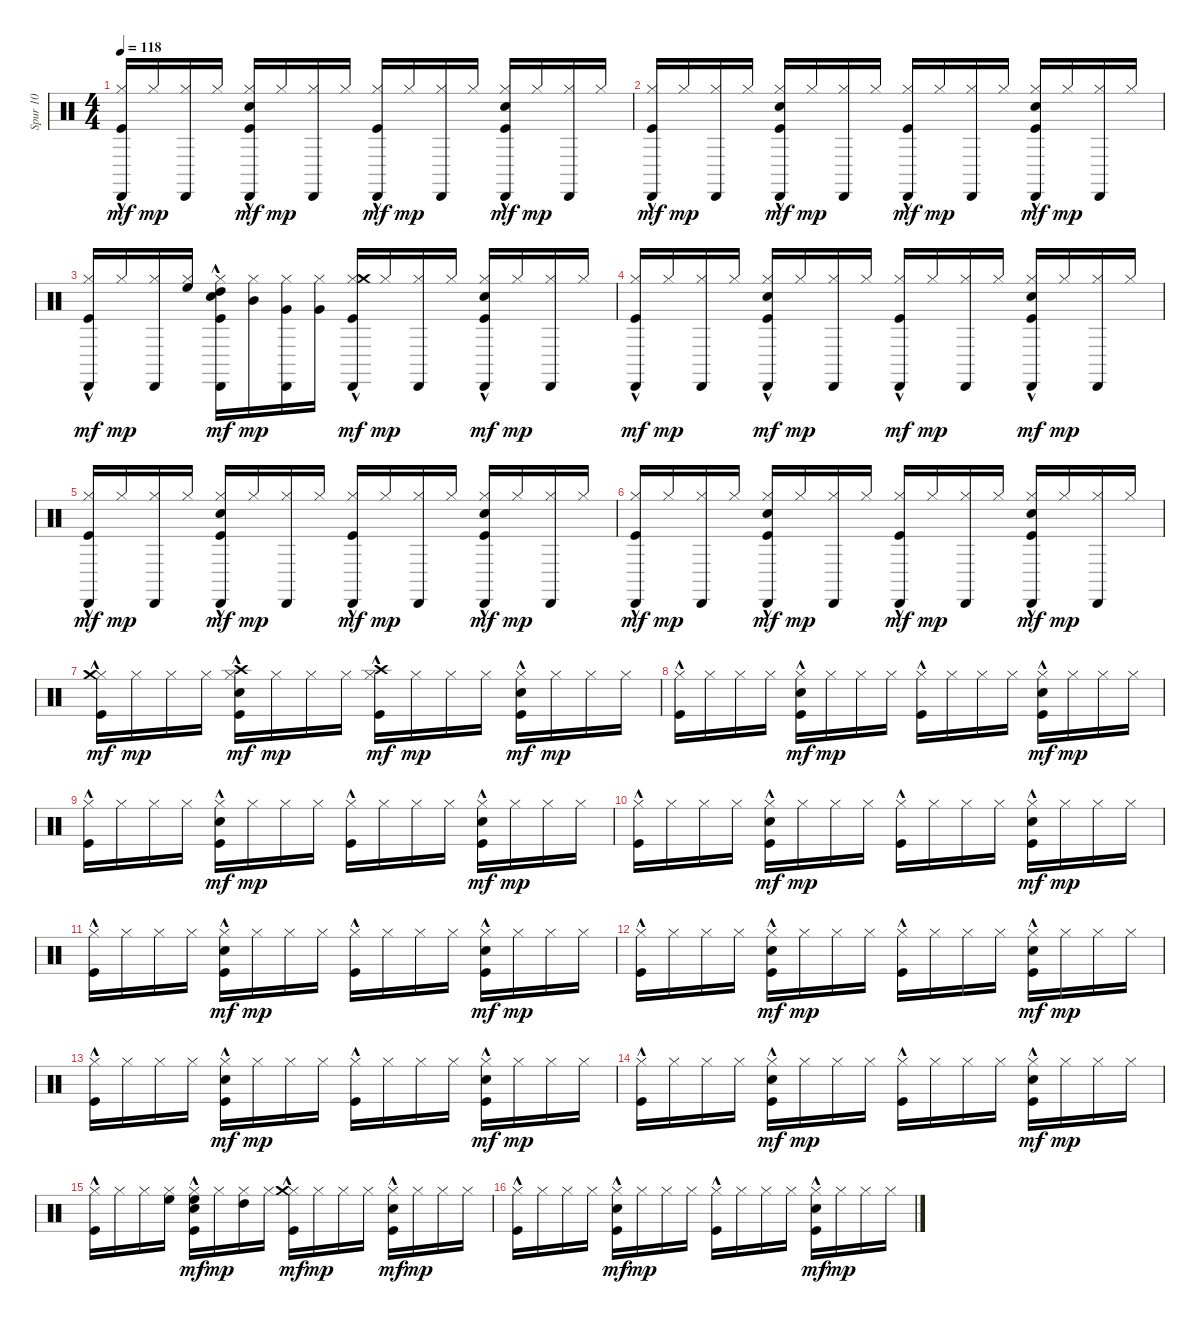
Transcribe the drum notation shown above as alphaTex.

\track ("Spur 10" "Spur 10") {instrument percussion}
\staff {score}
\articulation defaults
\ts (4 4)
\tempo 118
\clef neutral
\ks c
("Hi-Hat (closed)" "Kick (hit)"{hac} "Cabasa (hit)").16{dy mf} "Hi-Hat (closed)".16{dy mp} ("Hi-Hat (closed)" "Cabasa (hit)").16 "Hi-Hat (closed)".16 ("Hi-Hat (closed)" "Kick (hit)"{hac} "Electric Snare (hit)" "Cabasa (hit)").16{dy mf} "Hi-Hat (closed)".16{dy mp} ("Hi-Hat (closed)" "Cabasa (hit)").16 "Hi-Hat (closed)".16 ("Hi-Hat (closed)" "Kick (hit)"{hac} "Cabasa (hit)").16{dy mf} "Hi-Hat (closed)".16{dy mp} ("Hi-Hat (closed)" "Cabasa (hit)").16 "Hi-Hat (closed)".16 ("Hi-Hat (closed)" "Kick (hit)"{hac} "Electric Snare (hit)" "Cabasa (hit)").16{dy mf} "Hi-Hat (closed)".16{dy mp} ("Hi-Hat (closed)" "Cabasa (hit)").16 "Hi-Hat (closed)".16 |
("Hi-Hat (closed)" "Kick (hit)"{hac} "Cabasa (hit)").16{dy mf} "Hi-Hat (closed)".16{dy mp} ("Hi-Hat (closed)" "Cabasa (hit)").16 "Hi-Hat (closed)".16 ("Hi-Hat (closed)" "Kick (hit)"{hac} "Electric Snare (hit)" "Cabasa (hit)").16{dy mf} "Hi-Hat (closed)".16{dy mp} ("Hi-Hat (closed)" "Cabasa (hit)").16 "Hi-Hat (closed)".16 ("Hi-Hat (closed)" "Kick (hit)"{hac} "Cabasa (hit)").16{dy mf} "Hi-Hat (closed)".16{dy mp} ("Hi-Hat (closed)" "Cabasa (hit)").16 "Hi-Hat (closed)".16 ("Hi-Hat (closed)" "Kick (hit)"{hac} "Electric Snare (hit)" "Cabasa (hit)").16{dy mf} "Hi-Hat (closed)".16{dy mp} ("Hi-Hat (closed)" "Cabasa (hit)").16 "Hi-Hat (closed)".16 |
("Hi-Hat (closed)" "Kick (hit)"{hac} "Cabasa (hit)").16{dy mf} "Hi-Hat (closed)".16{dy mp} ("Hi-Hat (closed)" "Cabasa (hit)").16 ("High Floor Tom (hit)" "Hi-Hat (closed)").16 ("High Tom (hit)" "Hi-Hat (closed)" "Kick (hit)"{hac} "Electric Snare (hit)" "Cabasa (hit)").16{dy mf} ("Mid Tom (hit)" "Hi-Hat (closed)").16{dy mp} ("Very Low Tom (hit)" "Hi-Hat (closed)" "Cabasa (hit)").16 ("Very Low Tom (hit)" "Hi-Hat (closed)").16 ("Hi-Hat (closed)" "Kick (hit)"{hac} "Crash medium (hit)"{hac} "Cabasa (hit)").16{dy mf} "Hi-Hat (closed)".16{dy mp} ("Hi-Hat (closed)" "Cabasa (hit)").16 "Hi-Hat (closed)".16 ("Hi-Hat (closed)" "Kick (hit)"{hac} "Electric Snare (hit)" "Cabasa (hit)").16{dy mf} "Hi-Hat (closed)".16{dy mp} ("Hi-Hat (closed)" "Cabasa (hit)").16 "Hi-Hat (closed)".16 |
("Hi-Hat (closed)" "Kick (hit)"{hac} "Cabasa (hit)").16{dy mf} "Hi-Hat (closed)".16{dy mp} ("Hi-Hat (closed)" "Cabasa (hit)").16 "Hi-Hat (closed)".16 ("Hi-Hat (closed)" "Kick (hit)"{hac} "Electric Snare (hit)" "Cabasa (hit)").16{dy mf} "Hi-Hat (closed)".16{dy mp} ("Hi-Hat (closed)" "Cabasa (hit)").16 "Hi-Hat (closed)".16 ("Hi-Hat (closed)" "Kick (hit)"{hac} "Cabasa (hit)").16{dy mf} "Hi-Hat (closed)".16{dy mp} ("Hi-Hat (closed)" "Cabasa (hit)").16 "Hi-Hat (closed)".16 ("Hi-Hat (closed)" "Kick (hit)"{hac} "Electric Snare (hit)" "Cabasa (hit)").16{dy mf} "Hi-Hat (closed)".16{dy mp} ("Hi-Hat (closed)" "Cabasa (hit)").16 "Hi-Hat (closed)".16 |
("Hi-Hat (closed)" "Kick (hit)"{hac} "Cabasa (hit)").16{dy mf} "Hi-Hat (closed)".16{dy mp} ("Hi-Hat (closed)" "Cabasa (hit)").16 "Hi-Hat (closed)".16 ("Hi-Hat (closed)" "Kick (hit)"{hac} "Electric Snare (hit)" "Cabasa (hit)").16{dy mf} "Hi-Hat (closed)".16{dy mp} ("Hi-Hat (closed)" "Cabasa (hit)").16 "Hi-Hat (closed)".16 ("Hi-Hat (closed)" "Kick (hit)"{hac} "Cabasa (hit)").16{dy mf} "Hi-Hat (closed)".16{dy mp} ("Hi-Hat (closed)" "Cabasa (hit)").16 "Hi-Hat (closed)".16 ("Hi-Hat (closed)" "Kick (hit)"{hac} "Electric Snare (hit)" "Cabasa (hit)").16{dy mf} "Hi-Hat (closed)".16{dy mp} ("Hi-Hat (closed)" "Cabasa (hit)").16 "Hi-Hat (closed)".16 |
("Hi-Hat (closed)" "Kick (hit)"{hac} "Cabasa (hit)").16{dy mf} "Hi-Hat (closed)".16{dy mp} ("Hi-Hat (closed)" "Cabasa (hit)").16 "Hi-Hat (closed)".16 ("Hi-Hat (closed)" "Kick (hit)"{hac} "Electric Snare (hit)" "Cabasa (hit)").16{dy mf} "Hi-Hat (closed)".16{dy mp} ("Hi-Hat (closed)" "Cabasa (hit)").16 "Hi-Hat (closed)".16 ("Hi-Hat (closed)" "Kick (hit)"{hac} "Cabasa (hit)").16{dy mf} "Hi-Hat (closed)".16{dy mp} ("Hi-Hat (closed)" "Cabasa (hit)").16 "Hi-Hat (closed)".16 ("Hi-Hat (closed)" "Kick (hit)"{hac} "Electric Snare (hit)" "Cabasa (hit)").16{dy mf} "Hi-Hat (closed)".16{dy mp} ("Hi-Hat (closed)" "Cabasa (hit)").16 "Hi-Hat (closed)".16 |
("Hi-Hat (closed)" "Kick (hit)"{hac} "Crash medium (hit)"{hac}).16{dy mf} "Hi-Hat (closed)".16{dy mp} "Hi-Hat (closed)".16 "Hi-Hat (closed)".16 ("Hi-Hat (closed)" "Kick (hit)"{hac} "Electric Snare (hit)" "Crash high (hit)"{hac}).16{dy mf} "Hi-Hat (closed)".16{dy mp} "Hi-Hat (closed)".16 "Hi-Hat (closed)".16 ("Hi-Hat (closed)" "Kick (hit)"{hac} "Crash high (hit)"{hac}).16{dy mf} "Hi-Hat (closed)".16{dy mp} "Hi-Hat (closed)".16 "Hi-Hat (closed)".16 ("Hi-Hat (closed)" "Kick (hit)"{hac} "Electric Snare (hit)").16{dy mf} "Hi-Hat (closed)".16{dy mp} "Hi-Hat (closed)".16 "Hi-Hat (closed)".16 |
("Hi-Hat (closed)" "Kick (hit)"{hac}).16 "Hi-Hat (closed)".16 "Hi-Hat (closed)".16 "Hi-Hat (closed)".16 ("Hi-Hat (closed)" "Kick (hit)"{hac} "Electric Snare (hit)").16{dy mf} "Hi-Hat (closed)".16{dy mp} "Hi-Hat (closed)".16 "Hi-Hat (closed)".16 ("Hi-Hat (closed)" "Kick (hit)"{hac}).16 "Hi-Hat (closed)".16 "Hi-Hat (closed)".16 "Hi-Hat (closed)".16 ("Hi-Hat (closed)" "Kick (hit)"{hac} "Electric Snare (hit)").16{dy mf} "Hi-Hat (closed)".16{dy mp} "Hi-Hat (closed)".16 "Hi-Hat (closed)".16 |
("Hi-Hat (closed)" "Kick (hit)"{hac}).16 "Hi-Hat (closed)".16 "Hi-Hat (closed)".16 "Hi-Hat (closed)".16 ("Hi-Hat (closed)" "Kick (hit)"{hac} "Electric Snare (hit)").16{dy mf} "Hi-Hat (closed)".16{dy mp} "Hi-Hat (closed)".16 "Hi-Hat (closed)".16 ("Hi-Hat (closed)" "Kick (hit)"{hac}).16 "Hi-Hat (closed)".16 "Hi-Hat (closed)".16 "Hi-Hat (closed)".16 ("Hi-Hat (closed)" "Kick (hit)"{hac} "Electric Snare (hit)").16{dy mf} "Hi-Hat (closed)".16{dy mp} "Hi-Hat (closed)".16 "Hi-Hat (closed)".16 |
("Hi-Hat (closed)" "Kick (hit)"{hac}).16 "Hi-Hat (closed)".16 "Hi-Hat (closed)".16 "Hi-Hat (closed)".16 ("Hi-Hat (closed)" "Kick (hit)"{hac} "Electric Snare (hit)").16{dy mf} "Hi-Hat (closed)".16{dy mp} "Hi-Hat (closed)".16 "Hi-Hat (closed)".16 ("Hi-Hat (closed)" "Kick (hit)"{hac}).16 "Hi-Hat (closed)".16 "Hi-Hat (closed)".16 "Hi-Hat (closed)".16 ("Hi-Hat (closed)" "Kick (hit)"{hac} "Electric Snare (hit)").16{dy mf} "Hi-Hat (closed)".16{dy mp} "Hi-Hat (closed)".16 "Hi-Hat (closed)".16 |
("Hi-Hat (closed)" "Kick (hit)"{hac}).16 "Hi-Hat (closed)".16 "Hi-Hat (closed)".16 "Hi-Hat (closed)".16 ("Hi-Hat (closed)" "Kick (hit)"{hac} "Electric Snare (hit)").16{dy mf} "Hi-Hat (closed)".16{dy mp} "Hi-Hat (closed)".16 "Hi-Hat (closed)".16 ("Hi-Hat (closed)" "Kick (hit)"{hac}).16 "Hi-Hat (closed)".16 "Hi-Hat (closed)".16 "Hi-Hat (closed)".16 ("Hi-Hat (closed)" "Kick (hit)"{hac} "Electric Snare (hit)").16{dy mf} "Hi-Hat (closed)".16{dy mp} "Hi-Hat (closed)".16 "Hi-Hat (closed)".16 |
("Hi-Hat (closed)" "Kick (hit)"{hac}).16 "Hi-Hat (closed)".16 "Hi-Hat (closed)".16 "Hi-Hat (closed)".16 ("Hi-Hat (closed)" "Kick (hit)"{hac} "Electric Snare (hit)").16{dy mf} "Hi-Hat (closed)".16{dy mp} "Hi-Hat (closed)".16 "Hi-Hat (closed)".16 ("Hi-Hat (closed)" "Kick (hit)"{hac}).16 "Hi-Hat (closed)".16 "Hi-Hat (closed)".16 "Hi-Hat (closed)".16 ("Hi-Hat (closed)" "Kick (hit)"{hac} "Electric Snare (hit)").16{dy mf} "Hi-Hat (closed)".16{dy mp} "Hi-Hat (closed)".16 "Hi-Hat (closed)".16 |
("Hi-Hat (closed)" "Kick (hit)"{hac}).16 "Hi-Hat (closed)".16 "Hi-Hat (closed)".16 "Hi-Hat (closed)".16 ("Hi-Hat (closed)" "Kick (hit)"{hac} "Electric Snare (hit)").16{dy mf} "Hi-Hat (closed)".16{dy mp} "Hi-Hat (closed)".16 "Hi-Hat (closed)".16 ("Hi-Hat (closed)" "Kick (hit)"{hac}).16 "Hi-Hat (closed)".16 "Hi-Hat (closed)".16 "Hi-Hat (closed)".16 ("Hi-Hat (closed)" "Kick (hit)"{hac} "Electric Snare (hit)").16{dy mf} "Hi-Hat (closed)".16{dy mp} "Hi-Hat (closed)".16 "Hi-Hat (closed)".16 |
("Hi-Hat (closed)" "Kick (hit)"{hac}).16 "Hi-Hat (closed)".16 "Hi-Hat (closed)".16 "Hi-Hat (closed)".16 ("Hi-Hat (closed)" "Kick (hit)"{hac} "Electric Snare (hit)").16{dy mf} "Hi-Hat (closed)".16{dy mp} "Hi-Hat (closed)".16 "Hi-Hat (closed)".16 ("Hi-Hat (closed)" "Kick (hit)"{hac}).16 "Hi-Hat (closed)".16 "Hi-Hat (closed)".16 "Hi-Hat (closed)".16 ("Hi-Hat (closed)" "Kick (hit)"{hac} "Electric Snare (hit)").16{dy mf} "Hi-Hat (closed)".16{dy mp} "Hi-Hat (closed)".16 "Hi-Hat (closed)".16 |
("Hi-Hat (closed)" "Kick (hit)"{hac}).16 "Hi-Hat (closed)".16 "Hi-Hat (closed)".16 ("Hi-Hat (closed)" "High Floor Tom (hit)").16 ("High Floor Tom (hit)" "Hi-Hat (closed)" "Kick (hit)"{hac} "Electric Snare (hit)").16{dy mf} "Hi-Hat (closed)".16{dy mp} ("Hi-Hat (closed)" "High Tom (hit)").16 "Hi-Hat (closed)".16 ("Hi-Hat (closed)" "Kick (hit)"{hac} "Crash medium (hit)"{hac}).16{dy mf} "Hi-Hat (closed)".16{dy mp} "Hi-Hat (closed)".16 "Hi-Hat (closed)".16 ("Hi-Hat (closed)" "Kick (hit)"{hac} "Electric Snare (hit)").16{dy mf} "Hi-Hat (closed)".16{dy mp} "Hi-Hat (closed)".16 "Hi-Hat (closed)".16 |
("Hi-Hat (closed)" "Kick (hit)"{hac}).16 "Hi-Hat (closed)".16 "Hi-Hat (closed)".16 "Hi-Hat (closed)".16 ("Hi-Hat (closed)" "Kick (hit)"{hac} "Electric Snare (hit)").16{dy mf} "Hi-Hat (closed)".16{dy mp} "Hi-Hat (closed)".16 "Hi-Hat (closed)".16 ("Hi-Hat (closed)" "Kick (hit)"{hac}).16 "Hi-Hat (closed)".16 "Hi-Hat (closed)".16 "Hi-Hat (closed)".16 ("Hi-Hat (closed)" "Kick (hit)"{hac} "Electric Snare (hit)").16{dy mf} "Hi-Hat (closed)".16{dy mp} "Hi-Hat (closed)".16 "Hi-Hat (closed)".16
